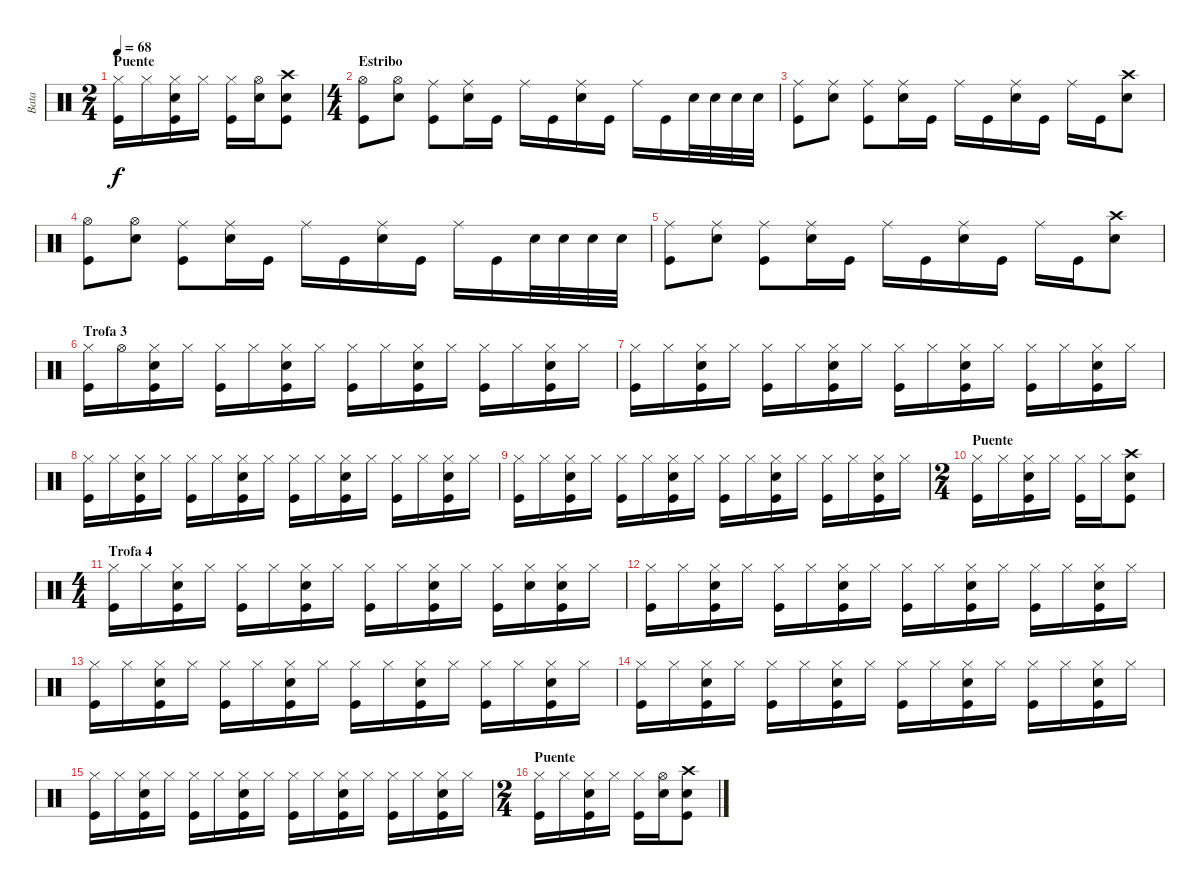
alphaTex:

\track ("Bata" "Bata") {instrument percussion}
\staff {score}
\articulation defaults
\ts (2 4)
\section ("" "Puente")
\tempo 68
\clef neutral
\ks c
("Hi-Hat (closed)" "Kick (hit)").16{dy f} "Hi-Hat (closed)".16 ("Hi-Hat (closed)" "Electric Snare (hit)" "Kick (hit)").16 "Hi-Hat (closed)".16 ("Hi-Hat (closed)" "Kick (hit)").16 ("Hi-Hat (open)" "Electric Snare (hit)").16 ("Crash high (hit)" "Electric Snare (hit)" "Kick (hit)").8 |
\ts (4 4)
\section ("" "Estribo")
("Hi-Hat (open)" "Kick (hit)").8 ("Hi-Hat (open)" "Electric Snare (hit)").8 ("Ride (middle)" "Kick (hit)").8 ("Ride (middle)" "Electric Snare (hit)").16 "Kick (hit)".16 "Ride (middle)".16 "Kick (hit)".16 ("Ride (middle)" "Electric Snare (hit)").16 "Kick (hit)".16 "Ride (middle)".16 "Kick (hit)".16 "Electric Snare (hit)".32 "Electric Snare (hit)".32 "Electric Snare (hit)".32 "Electric Snare (hit)".32 |
("Ride (middle)" "Kick (hit)").8 ("Ride (middle)" "Electric Snare (hit)").8 ("Ride (middle)" "Kick (hit)").8 ("Ride (middle)" "Electric Snare (hit)").16 "Kick (hit)".16 "Ride (middle)".16 "Kick (hit)".16 ("Ride (middle)" "Electric Snare (hit)").16 "Kick (hit)".16 "Ride (middle)".16 "Kick (hit)".16 ("Crash high (hit)" "Electric Snare (hit)").8 |
("Hi-Hat (open)" "Kick (hit)").8 ("Hi-Hat (open)" "Electric Snare (hit)").8 ("Ride (middle)" "Kick (hit)").8 ("Ride (middle)" "Electric Snare (hit)").16 "Kick (hit)".16 "Ride (middle)".16 "Kick (hit)".16 ("Ride (middle)" "Electric Snare (hit)").16 "Kick (hit)".16 "Ride (middle)".16 "Kick (hit)".16 "Electric Snare (hit)".32 "Electric Snare (hit)".32 "Electric Snare (hit)".32 "Electric Snare (hit)".32 |
("Ride (middle)" "Kick (hit)").8 ("Ride (middle)" "Electric Snare (hit)").8 ("Ride (middle)" "Kick (hit)").8 ("Ride (middle)" "Electric Snare (hit)").16 "Kick (hit)".16 "Ride (middle)".16 "Kick (hit)".16 ("Ride (middle)" "Electric Snare (hit)").16 "Kick (hit)".16 "Ride (middle)".16 "Kick (hit)".16 ("Crash high (hit)" "Electric Snare (hit)").8 |
\section ("" "Trofa 3")
("Hi-Hat (closed)" "Kick (hit)").16 "Hi-Hat (open)".16 ("Hi-Hat (closed)" "Electric Snare (hit)" "Kick (hit)").16 "Hi-Hat (closed)".16 ("Hi-Hat (closed)" "Kick (hit)").16 "Hi-Hat (closed)".16 ("Hi-Hat (closed)" "Electric Snare (hit)" "Kick (hit)").16 "Hi-Hat (closed)".16 ("Hi-Hat (closed)" "Kick (hit)").16 "Hi-Hat (closed)".16 ("Hi-Hat (closed)" "Electric Snare (hit)" "Kick (hit)").16 "Hi-Hat (closed)".16 ("Hi-Hat (closed)" "Kick (hit)").16 "Hi-Hat (closed)".16 ("Hi-Hat (closed)" "Electric Snare (hit)" "Kick (hit)").16 "Hi-Hat (closed)".16 |
("Hi-Hat (closed)" "Kick (hit)").16 "Hi-Hat (closed)".16 ("Hi-Hat (closed)" "Electric Snare (hit)" "Kick (hit)").16 "Hi-Hat (closed)".16 ("Hi-Hat (closed)" "Kick (hit)").16 "Hi-Hat (closed)".16 ("Hi-Hat (closed)" "Electric Snare (hit)" "Kick (hit)").16 "Hi-Hat (closed)".16 ("Hi-Hat (closed)" "Kick (hit)").16 "Hi-Hat (closed)".16 ("Hi-Hat (closed)" "Electric Snare (hit)" "Kick (hit)").16 "Hi-Hat (closed)".16 ("Hi-Hat (closed)" "Kick (hit)").16 "Hi-Hat (closed)".16 ("Hi-Hat (closed)" "Electric Snare (hit)" "Kick (hit)").16 "Hi-Hat (closed)".16 |
("Hi-Hat (closed)" "Kick (hit)").16 "Hi-Hat (closed)".16 ("Hi-Hat (closed)" "Electric Snare (hit)" "Kick (hit)").16 "Hi-Hat (closed)".16 ("Hi-Hat (closed)" "Kick (hit)").16 "Hi-Hat (closed)".16 ("Hi-Hat (closed)" "Electric Snare (hit)" "Kick (hit)").16 "Hi-Hat (closed)".16 ("Hi-Hat (closed)" "Kick (hit)").16 "Hi-Hat (closed)".16 ("Hi-Hat (closed)" "Electric Snare (hit)" "Kick (hit)").16 "Hi-Hat (closed)".16 ("Hi-Hat (closed)" "Kick (hit)").16 "Hi-Hat (closed)".16 ("Hi-Hat (closed)" "Electric Snare (hit)" "Kick (hit)").16 "Hi-Hat (closed)".16 |
("Hi-Hat (closed)" "Kick (hit)").16 "Hi-Hat (closed)".16 ("Hi-Hat (closed)" "Electric Snare (hit)" "Kick (hit)").16 "Hi-Hat (closed)".16 ("Hi-Hat (closed)" "Kick (hit)").16 "Hi-Hat (closed)".16 ("Hi-Hat (closed)" "Electric Snare (hit)" "Kick (hit)").16 "Hi-Hat (closed)".16 ("Hi-Hat (closed)" "Kick (hit)").16 "Hi-Hat (closed)".16 ("Hi-Hat (closed)" "Electric Snare (hit)" "Kick (hit)").16 "Hi-Hat (closed)".16 ("Hi-Hat (closed)" "Kick (hit)").16 "Hi-Hat (closed)".16 ("Hi-Hat (closed)" "Electric Snare (hit)" "Kick (hit)").16 "Hi-Hat (closed)".16 |
\ts (2 4)
\section ("" "Puente")
("Hi-Hat (closed)" "Kick (hit)").16 "Hi-Hat (closed)".16 ("Hi-Hat (closed)" "Electric Snare (hit)" "Kick (hit)").16 "Hi-Hat (closed)".16 ("Hi-Hat (closed)" "Kick (hit)").16 "Hi-Hat (closed)".16 ("Crash high (hit)" "Electric Snare (hit)" "Kick (hit)").8 |
\ts (4 4)
\section ("" "Trofa 4")
("Hi-Hat (closed)" "Kick (hit)").16 "Hi-Hat (closed)".16 ("Hi-Hat (closed)" "Electric Snare (hit)" "Kick (hit)").16 "Hi-Hat (closed)".16 ("Hi-Hat (closed)" "Kick (hit)").16 "Hi-Hat (closed)".16 ("Hi-Hat (closed)" "Electric Snare (hit)" "Kick (hit)").16 "Hi-Hat (closed)".16 ("Hi-Hat (closed)" "Kick (hit)").16 "Hi-Hat (closed)".16 ("Hi-Hat (closed)" "Electric Snare (hit)" "Kick (hit)").16 "Hi-Hat (closed)".16 ("Hi-Hat (closed)" "Kick (hit)").16 ("Hi-Hat (closed)" "Electric Snare (hit)").16 ("Hi-Hat (closed)" "Electric Snare (hit)" "Kick (hit)").16 "Hi-Hat (closed)".16 |
("Hi-Hat (closed)" "Kick (hit)").16 "Hi-Hat (closed)".16 ("Hi-Hat (closed)" "Electric Snare (hit)" "Kick (hit)").16 "Hi-Hat (closed)".16 ("Hi-Hat (closed)" "Kick (hit)").16 "Hi-Hat (closed)".16 ("Hi-Hat (closed)" "Electric Snare (hit)" "Kick (hit)").16 "Hi-Hat (closed)".16 ("Hi-Hat (closed)" "Kick (hit)").16 "Hi-Hat (closed)".16 ("Hi-Hat (closed)" "Electric Snare (hit)" "Kick (hit)").16 "Hi-Hat (closed)".16 ("Hi-Hat (closed)" "Kick (hit)").16 "Hi-Hat (closed)".16 ("Hi-Hat (closed)" "Electric Snare (hit)" "Kick (hit)").16 "Hi-Hat (closed)".16 |
("Hi-Hat (closed)" "Kick (hit)").16 "Hi-Hat (closed)".16 ("Hi-Hat (closed)" "Electric Snare (hit)" "Kick (hit)").16 "Hi-Hat (closed)".16 ("Hi-Hat (closed)" "Kick (hit)").16 "Hi-Hat (closed)".16 ("Hi-Hat (closed)" "Electric Snare (hit)" "Kick (hit)").16 "Hi-Hat (closed)".16 ("Hi-Hat (closed)" "Kick (hit)").16 "Hi-Hat (closed)".16 ("Hi-Hat (closed)" "Electric Snare (hit)" "Kick (hit)").16 "Hi-Hat (closed)".16 ("Hi-Hat (closed)" "Kick (hit)").16 "Hi-Hat (closed)".16 ("Hi-Hat (closed)" "Electric Snare (hit)" "Kick (hit)").16 "Hi-Hat (closed)".16 |
("Hi-Hat (closed)" "Kick (hit)").16 "Hi-Hat (closed)".16 ("Hi-Hat (closed)" "Electric Snare (hit)" "Kick (hit)").16 "Hi-Hat (closed)".16 ("Hi-Hat (closed)" "Kick (hit)").16 "Hi-Hat (closed)".16 ("Hi-Hat (closed)" "Electric Snare (hit)" "Kick (hit)").16 "Hi-Hat (closed)".16 ("Hi-Hat (closed)" "Kick (hit)").16 "Hi-Hat (closed)".16 ("Hi-Hat (closed)" "Electric Snare (hit)" "Kick (hit)").16 "Hi-Hat (closed)".16 ("Hi-Hat (closed)" "Kick (hit)").16 "Hi-Hat (closed)".16 ("Hi-Hat (closed)" "Electric Snare (hit)" "Kick (hit)").16 "Hi-Hat (closed)".16 |
("Hi-Hat (closed)" "Kick (hit)").16 "Hi-Hat (closed)".16 ("Hi-Hat (closed)" "Electric Snare (hit)" "Kick (hit)").16 "Hi-Hat (closed)".16 ("Hi-Hat (closed)" "Kick (hit)").16 "Hi-Hat (closed)".16 ("Hi-Hat (closed)" "Electric Snare (hit)" "Kick (hit)").16 "Hi-Hat (closed)".16 ("Hi-Hat (closed)" "Kick (hit)").16 "Hi-Hat (closed)".16 ("Hi-Hat (closed)" "Electric Snare (hit)" "Kick (hit)").16 "Hi-Hat (closed)".16 ("Hi-Hat (closed)" "Kick (hit)").16 "Hi-Hat (closed)".16 ("Hi-Hat (closed)" "Electric Snare (hit)" "Kick (hit)").16 "Hi-Hat (closed)".16 |
\ts (2 4)
\section ("" "Puente")
("Hi-Hat (closed)" "Kick (hit)").16 "Hi-Hat (closed)".16 ("Hi-Hat (closed)" "Electric Snare (hit)" "Kick (hit)").16 "Hi-Hat (closed)".16 ("Hi-Hat (closed)" "Kick (hit)").16 ("Hi-Hat (open)" "Electric Snare (hit)").16 ("Crash high (hit)" "Electric Snare (hit)" "Kick (hit)").8
